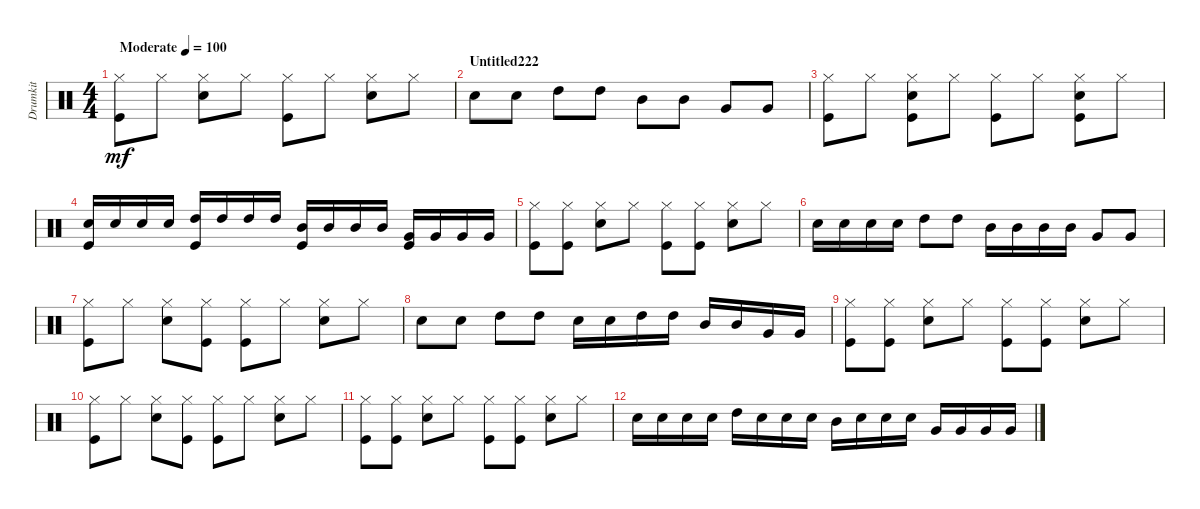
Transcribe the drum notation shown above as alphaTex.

\track ("Drumkit" "Drumkit") {instrument percussion}
\staff {score}
\articulation defaults
\ts (4 4)
\tempo (100 "Moderate")
\clef neutral
\ks c
("Kick (hit)" "Hi-Hat (closed)").8{dy mf} "Hi-Hat (closed)".8 ("Hi-Hat (closed)" "Snare (hit) 2").8 "Hi-Hat (closed)".8 ("Hi-Hat (closed)" "Kick (hit)").8 "Hi-Hat (closed)".8 ("Hi-Hat (closed)" "Snare (hit) 2").8 "Hi-Hat (closed)".8 |
\section ("" "Untitled222")
"Snare (hit) 2".8 "Snare (hit) 2".8 "High Tom (hit)".8 "High Tom (hit)".8 "Mid Tom (hit)".8 "Mid Tom (hit)".8 "Very Low Tom (hit)".8 "Very Low Tom (hit)".8 |
("Kick (hit)" "Hi-Hat (closed)").8 "Hi-Hat (closed)".8 ("Kick (hit)" "Snare (hit) 2" "Hi-Hat (closed)").8 "Hi-Hat (closed)".8 ("Kick (hit)" "Hi-Hat (closed)").8 "Hi-Hat (closed)".8 ("Kick (hit)" "Snare (hit) 2" "Hi-Hat (closed)").8 "Hi-Hat (closed)".8 |
("Snare (hit) 2" "Kick (hit)").16 "Snare (hit) 2".16 "Snare (hit) 2".16 "Snare (hit) 2".16 ("High Tom (hit)" "Kick (hit)").16 "High Tom (hit)".16 "High Tom (hit)".16 "High Tom (hit)".16 ("Mid Tom (hit)" "Kick (hit)").16 "Mid Tom (hit)".16 "Mid Tom (hit)".16 "Mid Tom (hit)".16 ("Very Low Tom (hit)" "Kick (hit)").16 "Very Low Tom (hit)".16 "Very Low Tom (hit)".16 "Very Low Tom (hit)".16 |
("Kick (hit)" "Hi-Hat (closed)").8 ("Kick (hit)" "Hi-Hat (closed)").8 ("Snare (hit) 2" "Hi-Hat (closed)").8 "Hi-Hat (closed)".8 ("Kick (hit)" "Hi-Hat (closed)").8 ("Kick (hit)" "Hi-Hat (closed)").8 ("Snare (hit) 2" "Hi-Hat (closed)").8 "Hi-Hat (closed)".8 |
"Snare (hit) 2".16 "Snare (hit) 2".16 "Snare (hit) 2".16 "Snare (hit) 2".16 "High Tom (hit)".8 "High Tom (hit)".8 "Mid Tom (hit)".16 "Mid Tom (hit)".16 "Mid Tom (hit)".16 "Mid Tom (hit)".16 "Very Low Tom (hit)".8 "Very Low Tom (hit)".8 |
("Hi-Hat (closed)" "Kick (hit)").8 "Hi-Hat (closed)".8 ("Hi-Hat (closed)" "Snare (hit) 2").8 ("Hi-Hat (closed)" "Kick (hit)").8 ("Hi-Hat (closed)" "Kick (hit)").8 "Hi-Hat (closed)".8 ("Hi-Hat (closed)" "Snare (hit) 2").8 "Hi-Hat (closed)".8 |
"Snare (hit) 2".8 "Snare (hit) 2".8 "High Tom (hit)".8 "High Tom (hit)".8 "Snare (hit) 2".16 "Snare (hit) 2".16 "High Tom (hit)".16 "High Tom (hit)".16 "Mid Tom (hit)".16 "Mid Tom (hit)".16 "Very Low Tom (hit)".16 "Very Low Tom (hit)".16 |
("Hi-Hat (closed)" "Kick (hit)").8 ("Hi-Hat (closed)" "Kick (hit)").8 ("Hi-Hat (closed)" "Snare (hit) 2").8 "Hi-Hat (closed)".8 ("Hi-Hat (closed)" "Kick (hit)").8 ("Hi-Hat (closed)" "Kick (hit)").8 ("Hi-Hat (closed)" "Snare (hit) 2").8 "Hi-Hat (closed)".8 |
("Hi-Hat (closed)" "Kick (hit)").8 "Hi-Hat (closed)".8 ("Hi-Hat (closed)" "Snare (hit) 2").8 ("Hi-Hat (closed)" "Kick (hit)").8 ("Hi-Hat (closed)" "Kick (hit)").8 "Hi-Hat (closed)".8 ("Hi-Hat (closed)" "Snare (hit) 2").8 "Hi-Hat (closed)".8 |
("Hi-Hat (closed)" "Kick (hit)").8 ("Hi-Hat (closed)" "Kick (hit)").8 ("Hi-Hat (closed)" "Snare (hit) 2").8 "Hi-Hat (closed)".8 ("Hi-Hat (closed)" "Kick (hit)").8 ("Hi-Hat (closed)" "Kick (hit)").8 ("Hi-Hat (closed)" "Snare (hit) 2").8 "Hi-Hat (closed)".8 |
"Snare (hit) 2".16 "Snare (hit) 2".16 "Snare (hit) 2".16 "Snare (hit) 2".16 "High Tom (hit)".16 "Snare (hit) 2".16 "Snare (hit) 2".16 "Snare (hit) 2".16 "Mid Tom (hit)".16 "Snare (hit) 2".16 "Snare (hit) 2".16 "Snare (hit) 2".16 "Very Low Tom (hit)".16 "Very Low Tom (hit)".16 "Very Low Tom (hit)".16 "Very Low Tom (hit)".16
